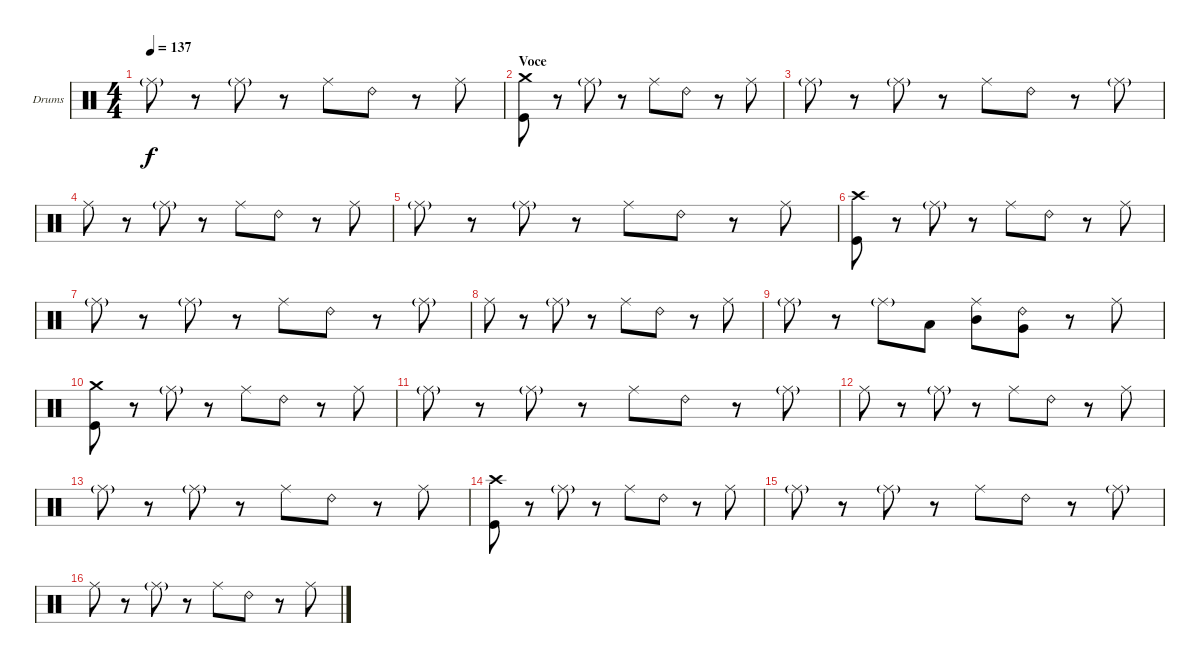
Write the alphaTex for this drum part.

\defaultSystemsLayout 4
\bracketExtendMode groupsimilarinstruments
\firstSystemTrackNameOrientation horizontal
\otherSystemsTrackNameOrientation horizontal
\track ("Valverde Drums" "Drums") {instrument percussion}
\staff {score}
\articulation defaults
\ts (4 4)
\tempo 137
\clef neutral
\ks c "Ride (middle)"{g}.8{dy f}
r.8 "Ride (middle)"{g}.8 r.8 "Ride (middle)".8 "Ride (bell) 2".8 r.8 "Ride (middle)".8 |
\section ("" "Voce")
("Crash medium (hit)" "Kick (hit)").8 r.8 "Ride (middle)"{g}.8 r.8 "Ride (middle)".8 "Ride (bell) 2".8 r.8 "Ride (middle)".8 |
"Ride (middle)"{g}.8 r.8 "Ride (middle)"{g}.8 r.8 "Ride (middle)".8 "Ride (bell) 2".8 r.8 "Ride (middle)"{g}.8 |
"Ride (middle)".8 r.8 "Ride (middle)"{g}.8 r.8 "Ride (middle)".8 "Ride (bell) 2".8 r.8 "Ride (middle)".8 |
"Ride (middle)"{g}.8 r.8 "Ride (middle)"{g}.8 r.8 "Ride (middle)".8 "Ride (bell) 2".8 r.8 "Ride (middle)".8 |
("Kick (hit)" "Crash high (hit)").8 r.8 "Ride (middle)"{g}.8 r.8 "Ride (middle)".8 "Ride (bell) 2".8 r.8 "Ride (middle)".8 |
"Ride (middle)"{g}.8 r.8 "Ride (middle)"{g}.8 r.8 "Ride (middle)".8 "Ride (bell) 2".8 r.8 "Ride (middle)"{g}.8 |
"Ride (middle)".8 r.8 "Ride (middle)"{g}.8 r.8 "Ride (middle)".8 "Ride (bell) 2".8 r.8 "Ride (middle)".8 |
"Ride (middle)"{g}.8 r.8 "Ride (middle)"{g}.8 "Low Tom (hit)".8 ("Ride (middle)" "Mid Tom (hit)").8 ("Ride (bell) 2" "Very Low Tom (hit)").8 r.8 "Ride (middle)".8 |
("Crash medium (hit)" "Kick (hit)").8 r.8 "Ride (middle)"{g}.8 r.8 "Ride (middle)".8 "Ride (bell) 2".8 r.8 "Ride (middle)".8 |
"Ride (middle)"{g}.8 r.8 "Ride (middle)"{g}.8 r.8 "Ride (middle)".8 "Ride (bell) 2".8 r.8 "Ride (middle)"{g}.8 |
"Ride (middle)".8 r.8 "Ride (middle)"{g}.8 r.8 "Ride (middle)".8 "Ride (bell) 2".8 r.8 "Ride (middle)".8 |
"Ride (middle)"{g}.8 r.8 "Ride (middle)"{g}.8 r.8 "Ride (middle)".8 "Ride (bell) 2".8 r.8 "Ride (middle)".8 |
("Kick (hit)" "Crash high (hit)").8 r.8 "Ride (middle)"{g}.8 r.8 "Ride (middle)".8 "Ride (bell) 2".8 r.8 "Ride (middle)".8 |
"Ride (middle)"{g}.8 r.8 "Ride (middle)"{g}.8 r.8 "Ride (middle)".8 "Ride (bell) 2".8 r.8 "Ride (middle)"{g}.8 |
"Ride (middle)".8 r.8 "Ride (middle)"{g}.8 r.8 "Ride (middle)".8 "Ride (bell) 2".8 r.8 "Ride (middle)".8
